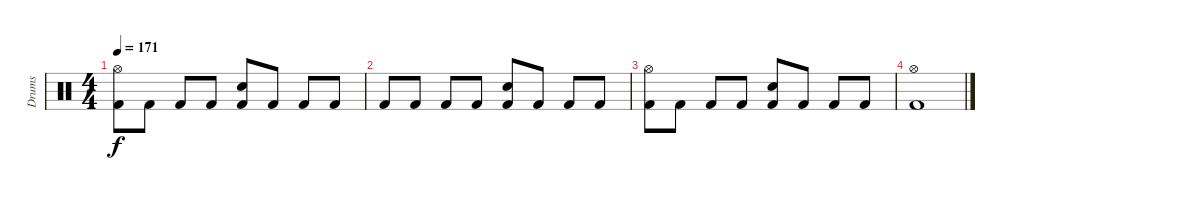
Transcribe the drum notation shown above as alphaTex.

\track ("Drums" "Drums") {instrument percussion}
\staff {score}
\articulation defaults
\ts (4 4)
\tempo 171
\clef neutral
\ks c
("Hi-Hat (open)" "Kick (hit) 2").8{dy f} "Kick (hit) 2".8 "Kick (hit) 2".8 "Kick (hit) 2".8 ("Snare (hit) 2" "Kick (hit) 2").8 "Kick (hit) 2".8 "Kick (hit) 2".8 "Kick (hit) 2".8 |
"Kick (hit) 2".8 "Kick (hit) 2".8 "Kick (hit) 2".8 "Kick (hit) 2".8 ("Snare (hit) 2" "Kick (hit) 2").8 "Kick (hit) 2".8 "Kick (hit) 2".8 "Kick (hit) 2".8 |
("Hi-Hat (open)" "Kick (hit) 2").8 "Kick (hit) 2".8 "Kick (hit) 2".8 "Kick (hit) 2".8 ("Snare (hit) 2" "Kick (hit) 2").8 "Kick (hit) 2".8 "Kick (hit) 2".8 "Kick (hit) 2".8 |
("Hi-Hat (open)" "Kick (hit) 2").1
